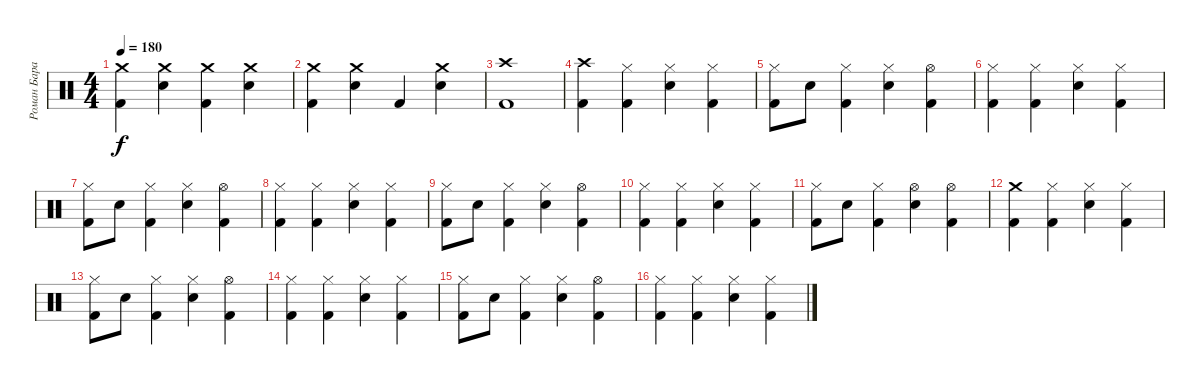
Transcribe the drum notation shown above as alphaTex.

\track ("Роман Баранюк" "Роман Бара") {instrument percussion}
\staff {score}
\articulation defaults
\ts (4 4)
\tempo 180
\clef neutral
\ks c
("Crash medium (hit)" "Kick (hit) 2").4{dy f} ("Crash medium (hit)" "Snare (hit) 2").4 ("Crash medium (hit)" "Kick (hit) 2").4 ("Crash medium (hit)" "Snare (hit) 2").4 |
("Crash medium (hit)" "Kick (hit) 2").4 ("Crash medium (hit)" "Snare (hit) 2").4 "Kick (hit) 2".4 ("Crash medium (hit)" "Snare (hit) 2").4 |
("Crash high (hit)" "Kick (hit) 2").1 |
("Crash high (hit)" "Kick (hit) 2").4 ("Hi-Hat (closed)" "Kick (hit) 2").4 ("Hi-Hat (closed)" "Snare (hit) 2").4 ("Hi-Hat (closed)" "Kick (hit) 2").4 |
("Hi-Hat (closed)" "Kick (hit) 2").8 "Snare (hit) 2".8 ("Hi-Hat (closed)" "Kick (hit) 2").4 ("Hi-Hat (closed)" "Snare (hit) 2").4 ("Hi-Hat (open)" "Kick (hit) 2").4 |
("Hi-Hat (closed)" "Kick (hit) 2").4 ("Hi-Hat (closed)" "Kick (hit) 2").4 ("Hi-Hat (closed)" "Snare (hit) 2").4 ("Hi-Hat (closed)" "Kick (hit) 2").4 |
("Hi-Hat (closed)" "Kick (hit) 2").8 "Snare (hit) 2".8 ("Hi-Hat (closed)" "Kick (hit) 2").4 ("Hi-Hat (closed)" "Snare (hit) 2").4 ("Hi-Hat (open)" "Kick (hit) 2").4 |
("Hi-Hat (closed)" "Kick (hit) 2").4 ("Hi-Hat (closed)" "Kick (hit) 2").4 ("Hi-Hat (closed)" "Snare (hit) 2").4 ("Hi-Hat (closed)" "Kick (hit) 2").4 |
("Hi-Hat (closed)" "Kick (hit) 2").8 "Snare (hit) 2".8 ("Hi-Hat (closed)" "Kick (hit) 2").4 ("Hi-Hat (closed)" "Snare (hit) 2").4 ("Hi-Hat (open)" "Kick (hit) 2").4 |
("Hi-Hat (closed)" "Kick (hit) 2").4 ("Hi-Hat (closed)" "Kick (hit) 2").4 ("Hi-Hat (closed)" "Snare (hit) 2").4 ("Hi-Hat (closed)" "Kick (hit) 2").4 |
("Hi-Hat (closed)" "Kick (hit) 2").8 "Snare (hit) 2".8 ("Hi-Hat (closed)" "Kick (hit) 2").4 ("Hi-Hat (open)" "Snare (hit) 2").4 ("Hi-Hat (open)" "Kick (hit) 2").4 |
("Crash medium (hit)" "Kick (hit) 2").4 ("Hi-Hat (closed)" "Kick (hit) 2").4 ("Hi-Hat (closed)" "Snare (hit) 2").4 ("Hi-Hat (closed)" "Kick (hit) 2").4 |
("Hi-Hat (closed)" "Kick (hit) 2").8 "Snare (hit) 2".8 ("Hi-Hat (closed)" "Kick (hit) 2").4 ("Hi-Hat (closed)" "Snare (hit) 2").4 ("Hi-Hat (open)" "Kick (hit) 2").4 |
("Hi-Hat (closed)" "Kick (hit) 2").4 ("Hi-Hat (closed)" "Kick (hit) 2").4 ("Hi-Hat (closed)" "Snare (hit) 2").4 ("Hi-Hat (closed)" "Kick (hit) 2").4 |
("Hi-Hat (closed)" "Kick (hit) 2").8 "Snare (hit) 2".8 ("Hi-Hat (closed)" "Kick (hit) 2").4 ("Hi-Hat (closed)" "Snare (hit) 2").4 ("Hi-Hat (open)" "Kick (hit) 2").4 |
("Hi-Hat (closed)" "Kick (hit) 2").4 ("Hi-Hat (closed)" "Kick (hit) 2").4 ("Hi-Hat (closed)" "Snare (hit) 2").4 ("Hi-Hat (closed)" "Kick (hit) 2").4
